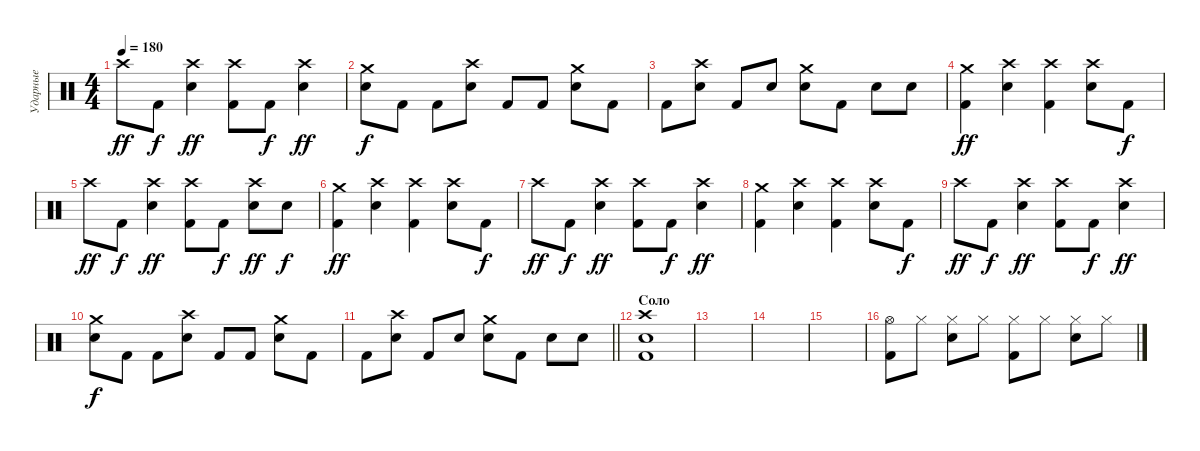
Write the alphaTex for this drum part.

\track ("Ударные" "Ударные") {instrument percussion}
\staff {score}
\articulation defaults
\ts (4 4)
\tempo 180
\clef neutral
\ks c "Crash high (hit)".8{dy ff} "Kick (hit) 2".8{dy f}
("Crash high (hit)" "Snare (hit) 2").4{dy ff} ("Crash high (hit)" "Kick (hit) 2").8 "Kick (hit) 2".8{dy f} ("Crash high (hit)" "Snare (hit) 2").4{dy ff} |
("Crash medium (hit)" "Snare (hit) 2").8{dy f} "Kick (hit) 2".8 "Kick (hit) 2".8 ("Crash high (hit)" "Snare (hit) 2").8 "Kick (hit) 2".8 "Kick (hit) 2".8 ("Crash medium (hit)" "Snare (hit) 2").8 "Kick (hit) 2".8 |
"Kick (hit) 2".8 ("Crash high (hit)" "Snare (hit) 2").8 "Kick (hit) 2".8 "Snare (hit)".8 ("Crash medium (hit)" "Snare (hit) 2").8 "Kick (hit) 2".8 "Snare (hit) 2".8 "Snare (hit) 2".8 |
("Crash medium (hit)" "Kick (hit) 2").4{dy ff} ("Crash high (hit)" "Snare (hit) 2").4 ("Crash high (hit)" "Kick (hit) 2").4 ("Crash high (hit)" "Snare (hit) 2").8 "Kick (hit) 2".8{dy f} |
"Crash high (hit)".8{dy ff} "Kick (hit) 2".8{dy f} ("Crash high (hit)" "Snare (hit) 2").4{dy ff} ("Crash high (hit)" "Kick (hit) 2").8 "Kick (hit) 2".8{dy f} ("Crash high (hit)" "Snare (hit) 2").8{dy ff} "Snare (hit) 2".8{dy f} |
("Crash medium (hit)" "Kick (hit) 2").4{dy ff} ("Crash high (hit)" "Snare (hit) 2").4 ("Crash high (hit)" "Kick (hit) 2").4 ("Crash high (hit)" "Snare (hit) 2").8 "Kick (hit) 2".8{dy f} |
"Crash high (hit)".8{dy ff} "Kick (hit) 2".8{dy f} ("Crash high (hit)" "Snare (hit) 2").4{dy ff} ("Crash high (hit)" "Kick (hit) 2").8 "Kick (hit) 2".8{dy f} ("Crash high (hit)" "Snare (hit) 2").4{dy ff} |
("Crash medium (hit)" "Kick (hit) 2").4 ("Crash high (hit)" "Snare (hit) 2").4 ("Crash high (hit)" "Kick (hit) 2").4 ("Crash high (hit)" "Snare (hit) 2").8 "Kick (hit) 2".8{dy f} |
"Crash high (hit)".8{dy ff} "Kick (hit) 2".8{dy f} ("Crash high (hit)" "Snare (hit) 2").4{dy ff} ("Crash high (hit)" "Kick (hit) 2").8 "Kick (hit) 2".8{dy f} ("Crash high (hit)" "Snare (hit) 2").4{dy ff} |
("Crash medium (hit)" "Snare (hit) 2").8{dy f} "Kick (hit) 2".8 "Kick (hit) 2".8 ("Crash high (hit)" "Snare (hit) 2").8 "Kick (hit) 2".8 "Kick (hit) 2".8 ("Crash medium (hit)" "Snare (hit) 2").8 "Kick (hit) 2".8 |
\barLineRight lightlight "Kick (hit) 2".8
("Crash high (hit)" "Snare (hit) 2").8 "Kick (hit) 2".8 "Snare (hit)".8 ("Crash medium (hit)" "Snare (hit) 2").8 "Kick (hit) 2".8 "Snare (hit) 2".8 "Snare (hit) 2".8 |
\section ("" "Соло")
("Crash high (hit)" "Snare (hit) 2" "Kick (hit) 2").1 |
|
|
|
("Hi-Hat (open)" "Kick (hit) 2").8 "Hi-Hat (closed)".8 ("Hi-Hat (closed)" "Snare (hit) 2").8 "Hi-Hat (closed)".8 ("Hi-Hat (closed)" "Kick (hit) 2").8 "Hi-Hat (closed)".8 ("Hi-Hat (closed)" "Snare (hit) 2").8 "Hi-Hat (closed)".8
